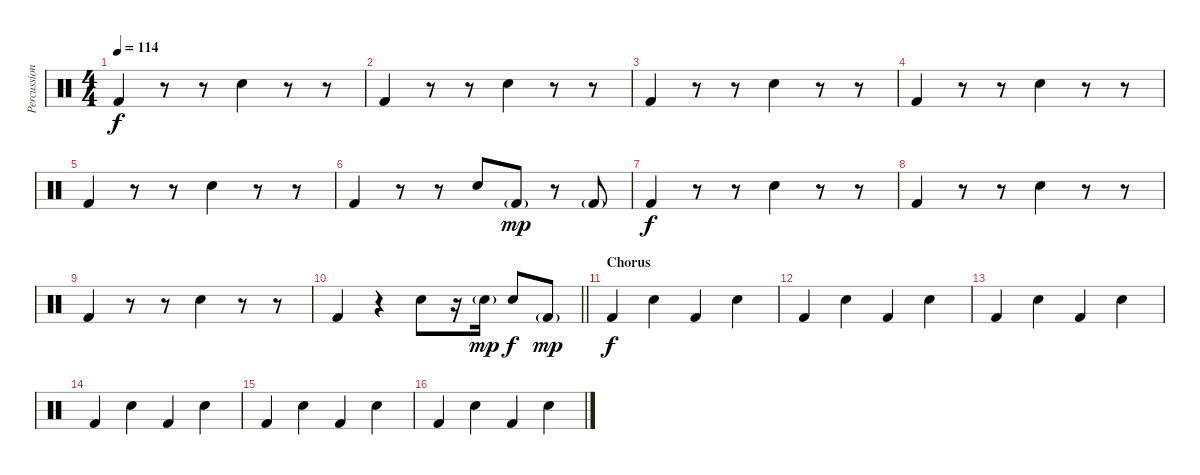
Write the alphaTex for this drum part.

\track ("Percussion" "Percussion") {instrument percussion}
\staff {score}
\articulation defaults
\ts (4 4)
\tempo 114
\clef neutral
\ks c "Kick (hit) 2".4{dy f}
r.8 r.8 "Snare (hit) 2".4 r.8 r.8 |
"Kick (hit) 2".4 r.8 r.8 "Snare (hit) 2".4 r.8 r.8 |
"Kick (hit) 2".4 r.8 r.8 "Snare (hit) 2".4 r.8 r.8 |
"Kick (hit) 2".4 r.8 r.8 "Snare (hit) 2".4 r.8 r.8 |
"Kick (hit) 2".4 r.8 r.8 "Snare (hit) 2".4 r.8 r.8 |
"Kick (hit) 2".4 r.8 r.8 "Snare (hit) 2".8 "Kick (hit) 2"{g}.8{dy mp} r.8 "Kick (hit) 2"{g}.8 |
"Kick (hit) 2".4{dy f} r.8 r.8 "Snare (hit) 2".4 r.8 r.8 |
"Kick (hit) 2".4 r.8 r.8 "Snare (hit) 2".4 r.8 r.8 |
"Kick (hit) 2".4 r.8 r.8 "Snare (hit) 2".4 r.8 r.8 |
\barLineRight lightlight "Kick (hit) 2".4
r.4 "Snare (hit) 2".8 r.16 "Snare (hit) 2"{g}.16{dy mp} "Snare (hit) 2".8{dy f} "Kick (hit) 2"{g}.8{dy mp} |
\section ("" "Chorus")
"Kick (hit) 2".4{dy f} "Snare (hit) 2".4 "Kick (hit) 2".4 "Snare (hit) 2".4 |
"Kick (hit) 2".4 "Snare (hit) 2".4 "Kick (hit) 2".4 "Snare (hit) 2".4 |
"Kick (hit) 2".4 "Snare (hit) 2".4 "Kick (hit) 2".4 "Snare (hit) 2".4 |
"Kick (hit) 2".4 "Snare (hit) 2".4 "Kick (hit) 2".4 "Snare (hit) 2".4 |
"Kick (hit) 2".4 "Snare (hit) 2".4 "Kick (hit) 2".4 "Snare (hit) 2".4 |
"Kick (hit) 2".4 "Snare (hit) 2".4 "Kick (hit) 2".4 "Snare (hit) 2".4
